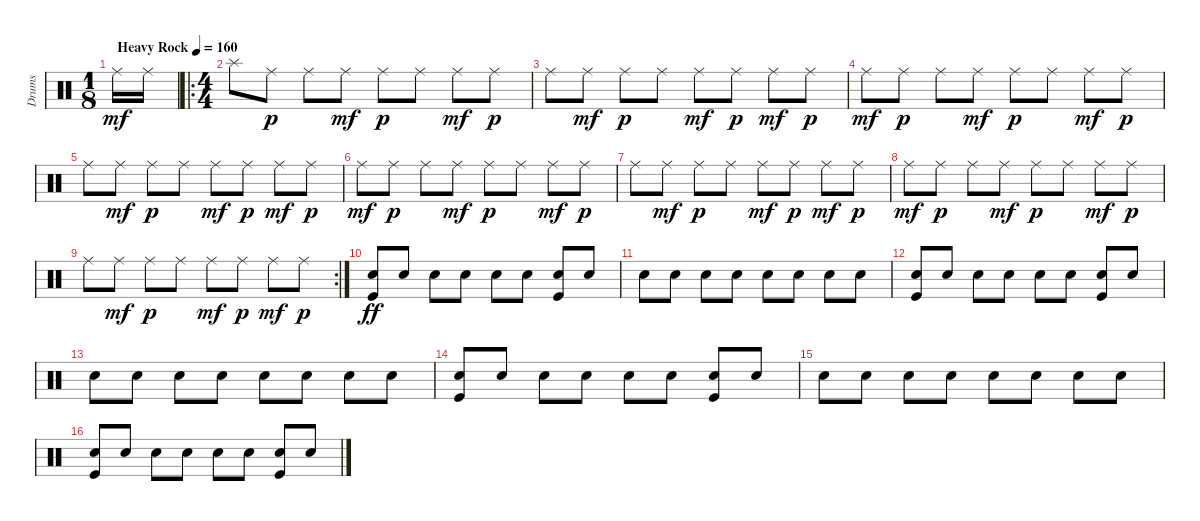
\track ("Drums" "Drums") {instrument percussion}
\staff {score}
\articulation defaults
\ts (1 8)
\tempo (160 "Heavy Rock")
\clef neutral
\ks c "Ride (middle)".16{dy mf} "Ride (middle)".16
|
\ro
\ts (4 4)
"Splash (hit)".8 "Ride (middle)".8{dy p} "Ride (middle)".8 "Ride (middle)".8{dy mf} "Ride (middle)".8{dy p} "Ride (middle)".8 "Ride (middle)".8{dy mf} "Ride (middle)".8{dy p} |
"Ride (middle)".8 "Ride (middle)".8{dy mf} "Ride (middle)".8{dy p} "Ride (middle)".8 "Ride (middle)".8{dy mf} "Ride (middle)".8{dy p} "Ride (middle)".8{dy mf} "Ride (middle)".8{dy p} |
"Ride (middle)".8{dy mf} "Ride (middle)".8{dy p} "Ride (middle)".8 "Ride (middle)".8{dy mf} "Ride (middle)".8{dy p} "Ride (middle)".8 "Ride (middle)".8{dy mf} "Ride (middle)".8{dy p} |
"Ride (middle)".8 "Ride (middle)".8{dy mf} "Ride (middle)".8{dy p} "Ride (middle)".8 "Ride (middle)".8{dy mf} "Ride (middle)".8{dy p} "Ride (middle)".8{dy mf} "Ride (middle)".8{dy p} |
"Ride (middle)".8{dy mf} "Ride (middle)".8{dy p} "Ride (middle)".8 "Ride (middle)".8{dy mf} "Ride (middle)".8{dy p} "Ride (middle)".8 "Ride (middle)".8{dy mf} "Ride (middle)".8{dy p} |
"Ride (middle)".8 "Ride (middle)".8{dy mf} "Ride (middle)".8{dy p} "Ride (middle)".8 "Ride (middle)".8{dy mf} "Ride (middle)".8{dy p} "Ride (middle)".8{dy mf} "Ride (middle)".8{dy p} |
"Ride (middle)".8{dy mf} "Ride (middle)".8{dy p} "Ride (middle)".8 "Ride (middle)".8{dy mf} "Ride (middle)".8{dy p} "Ride (middle)".8 "Ride (middle)".8{dy mf} "Ride (middle)".8{dy p} |
\rc 2 "Ride (middle)".8 "Ride (middle)".8{dy mf} "Ride (middle)".8{dy p} "Ride (middle)".8 "Ride (middle)".8{dy mf} "Ride (middle)".8{dy p} "Ride (middle)".8{dy mf} "Ride (middle)".8{dy p}
|
("Snare (hit) 2" "Kick (hit)").8{dy ff volume 8} "Snare (hit) 2".8 "Snare (hit) 2".8 "Snare (hit) 2".8 "Snare (hit) 2".8 "Snare (hit) 2".8 ("Snare (hit) 2" "Kick (hit)").8{volume 12} "Snare (hit) 2".8 |
"Snare (hit) 2".8 "Snare (hit) 2".8 "Snare (hit) 2".8 "Snare (hit) 2".8 "Snare (hit) 2".8 "Snare (hit) 2".8 "Snare (hit) 2".8 "Snare (hit) 2".8 |
("Snare (hit) 2" "Kick (hit)").8 "Snare (hit) 2".8 "Snare (hit) 2".8 "Snare (hit) 2".8 "Snare (hit) 2".8 "Snare (hit) 2".8 ("Snare (hit) 2" "Kick (hit)").8 "Snare (hit) 2".8 |
"Snare (hit) 2".8 "Snare (hit) 2".8 "Snare (hit) 2".8 "Snare (hit) 2".8 "Snare (hit) 2".8 "Snare (hit) 2".8 "Snare (hit) 2".8 "Snare (hit) 2".8 |
("Snare (hit) 2" "Kick (hit)").8 "Snare (hit) 2".8 "Snare (hit) 2".8 "Snare (hit) 2".8 "Snare (hit) 2".8 "Snare (hit) 2".8 ("Snare (hit) 2" "Kick (hit)").8 "Snare (hit) 2".8 |
"Snare (hit) 2".8 "Snare (hit) 2".8 "Snare (hit) 2".8 "Snare (hit) 2".8 "Snare (hit) 2".8 "Snare (hit) 2".8 "Snare (hit) 2".8 "Snare (hit) 2".8 |
("Snare (hit) 2" "Kick (hit)").8{volume 14} "Snare (hit) 2".8 "Snare (hit) 2".8 "Snare (hit) 2".8 "Snare (hit) 2".8 "Snare (hit) 2".8 ("Snare (hit) 2" "Kick (hit)").8 "Snare (hit) 2".8
